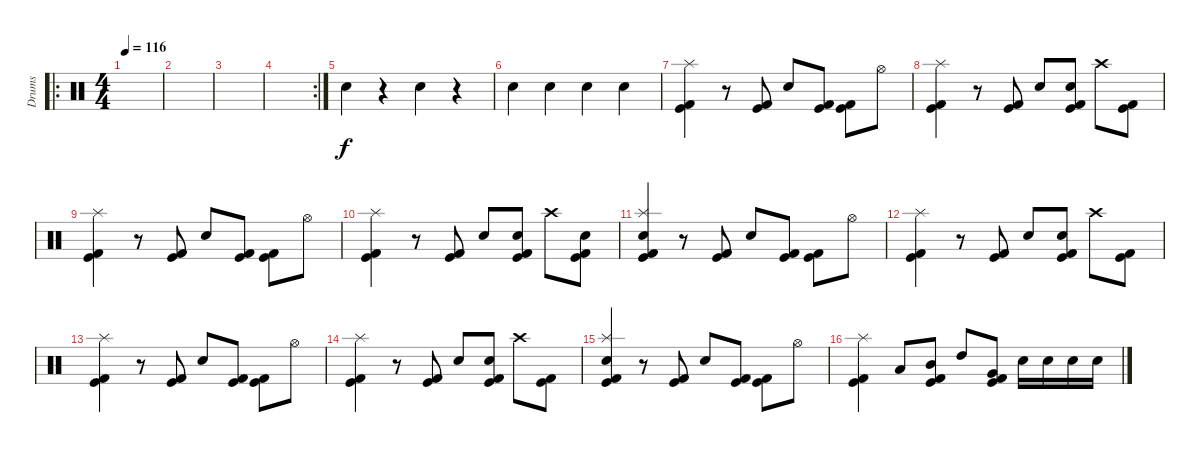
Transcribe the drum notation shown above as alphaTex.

\track ("Drums" "Drums") {instrument percussion}
\staff {score}
\articulation defaults
\ro
\ts (4 4)
\tempo 116
\clef neutral
\ks c
|
|
|
\rc 2
|
"Electric Snare (hit)".4 r.4 "Electric Snare (hit)".4 r.4 |
"Electric Snare (hit)".4 "Electric Snare (hit)".4 "Electric Snare (hit)".4 "Electric Snare (hit)".4 |
("Splash (hit)" "Kick (hit) 2" "Kick (hit)").4 r.8 ("Kick (hit) 2" "Kick (hit)").8 "Electric Snare (hit)".8 ("Kick (hit) 2" "Kick (hit)").8 ("Kick (hit)" "Kick (hit) 2").8 "Hi-Hat (open)".8 |
("Splash (hit)" "Kick (hit) 2" "Kick (hit)").4 r.8 ("Kick (hit) 2" "Kick (hit)").8 "Electric Snare (hit)".8 ("Electric Snare (hit)" "Kick (hit) 2" "Kick (hit)").8 "Crash high (hit)".8 ("Kick (hit) 2" "Kick (hit)").8 |
("Splash (hit)" "Kick (hit) 2" "Kick (hit)").4 r.8 ("Kick (hit) 2" "Kick (hit)").8 "Electric Snare (hit)".8 ("Kick (hit) 2" "Kick (hit)").8 ("Kick (hit)" "Kick (hit) 2").8 "Hi-Hat (open)".8 |
("Splash (hit)" "Kick (hit) 2" "Kick (hit)").4 r.8 ("Kick (hit) 2" "Kick (hit)").8 "Electric Snare (hit)".8 ("Electric Snare (hit)" "Kick (hit) 2" "Kick (hit)").8 "Crash high (hit)".8 ("Electric Snare (hit)" "Kick (hit) 2" "Kick (hit)").8 |
("Splash (hit)" "Electric Snare (hit)" "Kick (hit) 2" "Kick (hit)").4 r.8 ("Kick (hit) 2" "Kick (hit)").8 "Electric Snare (hit)".8 ("Kick (hit) 2" "Kick (hit)").8 ("Kick (hit)" "Kick (hit) 2").8 "Hi-Hat (open)".8 |
("Splash (hit)" "Kick (hit) 2" "Kick (hit)").4 r.8 ("Kick (hit) 2" "Kick (hit)").8 "Electric Snare (hit)".8 ("Electric Snare (hit)" "Kick (hit) 2" "Kick (hit)").8 "Crash high (hit)".8 ("Kick (hit) 2" "Kick (hit)").8 |
("Splash (hit)" "Kick (hit) 2" "Kick (hit)").4 r.8 ("Kick (hit) 2" "Kick (hit)").8 "Electric Snare (hit)".8 ("Kick (hit) 2" "Kick (hit)").8 ("Kick (hit)" "Kick (hit) 2").8 "Hi-Hat (open)".8 |
("Splash (hit)" "Kick (hit) 2" "Kick (hit)").4 r.8 ("Kick (hit) 2" "Kick (hit)").8 "Electric Snare (hit)".8 ("Electric Snare (hit)" "Kick (hit) 2" "Kick (hit)").8 "Crash high (hit)".8 ("Kick (hit) 2" "Kick (hit)").8 |
("Splash (hit)" "Electric Snare (hit)" "Kick (hit) 2" "Kick (hit)").4 r.8 ("Kick (hit) 2" "Kick (hit)").8 "Electric Snare (hit)".8 ("Kick (hit) 2" "Kick (hit)").8 ("Kick (hit)" "Kick (hit) 2").8 "Hi-Hat (open)".8 |
("Splash (hit)" "Kick (hit) 2" "Kick (hit)").4 "Low Tom (hit)".8 ("Mid Tom (hit)" "Kick (hit) 2" "Kick (hit)").8 "High Tom (hit)".8 ("Very Low Tom (hit)" "Kick (hit) 2" "Kick (hit)").8 "Electric Snare (hit)".16 "Electric Snare (hit)".16 "Electric Snare (hit)".16 "Electric Snare (hit)".16
